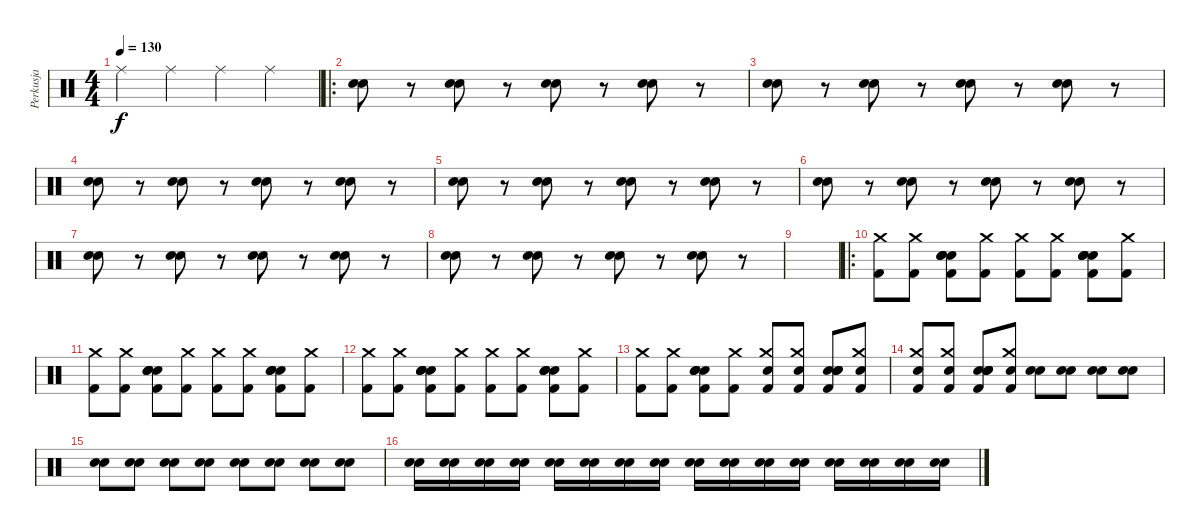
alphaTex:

\track ("Perkusja" "Perkusja") {instrument percussion}
\staff {score}
\articulation defaults
\ts (4 4)
\tempo 130
\clef neutral
\ks c "Ride (middle)".4{dy f} "Ride (middle)".4 "Ride (middle)".4 "Ride (middle)".4
|
\ro
("Electric Snare (hit)" "Electric Snare (hit)").8 r.8 ("Electric Snare (hit)" "Electric Snare (hit)").8 r.8 ("Electric Snare (hit)" "Electric Snare (hit)").8 r.8 ("Electric Snare (hit)" "Electric Snare (hit)").8 r.8 |
("Electric Snare (hit)" "Electric Snare (hit)").8 r.8 ("Electric Snare (hit)" "Electric Snare (hit)").8 r.8 ("Electric Snare (hit)" "Electric Snare (hit)").8 r.8 ("Electric Snare (hit)" "Electric Snare (hit)").8 r.8 |
("Electric Snare (hit)" "Electric Snare (hit)").8 r.8 ("Electric Snare (hit)" "Electric Snare (hit)").8 r.8 ("Electric Snare (hit)" "Electric Snare (hit)").8 r.8 ("Electric Snare (hit)" "Electric Snare (hit)").8 r.8 |
("Electric Snare (hit)" "Electric Snare (hit)").8 r.8 ("Electric Snare (hit)" "Electric Snare (hit)").8 r.8 ("Electric Snare (hit)" "Electric Snare (hit)").8 r.8 ("Electric Snare (hit)" "Electric Snare (hit)").8 r.8 |
("Electric Snare (hit)" "Electric Snare (hit)").8 r.8 ("Electric Snare (hit)" "Electric Snare (hit)").8 r.8 ("Electric Snare (hit)" "Electric Snare (hit)").8 r.8 ("Electric Snare (hit)" "Electric Snare (hit)").8 r.8 |
("Electric Snare (hit)" "Electric Snare (hit)").8 r.8 ("Electric Snare (hit)" "Electric Snare (hit)").8 r.8 ("Electric Snare (hit)" "Electric Snare (hit)").8 r.8 ("Electric Snare (hit)" "Electric Snare (hit)").8 r.8 |
("Electric Snare (hit)" "Electric Snare (hit)").8 r.8 ("Electric Snare (hit)" "Electric Snare (hit)").8 r.8 ("Electric Snare (hit)" "Electric Snare (hit)").8 r.8 ("Electric Snare (hit)" "Electric Snare (hit)").8 r.8 |
|
\ro
("Crash medium (hit)" "Kick (hit) 2").8 ("Crash medium (hit)" "Kick (hit) 2").8 ("Electric Snare (hit)" "Electric Snare (hit)" "Electric Snare (hit)" "Electric Snare (hit)" "Kick (hit) 2").8 ("Crash medium (hit)" "Kick (hit) 2").8 ("Crash medium (hit)" "Kick (hit) 2").8 ("Crash medium (hit)" "Kick (hit) 2").8 ("Electric Snare (hit)" "Electric Snare (hit)" "Electric Snare (hit)" "Electric Snare (hit)" "Kick (hit) 2").8 ("Crash medium (hit)" "Kick (hit) 2").8 |
("Crash medium (hit)" "Kick (hit) 2").8 ("Crash medium (hit)" "Kick (hit) 2").8 ("Electric Snare (hit)" "Electric Snare (hit)" "Electric Snare (hit)" "Electric Snare (hit)" "Kick (hit) 2").8 ("Crash medium (hit)" "Kick (hit) 2").8 ("Crash medium (hit)" "Kick (hit) 2").8 ("Crash medium (hit)" "Kick (hit) 2").8 ("Electric Snare (hit)" "Electric Snare (hit)" "Electric Snare (hit)" "Electric Snare (hit)" "Kick (hit) 2").8 ("Crash medium (hit)" "Kick (hit) 2").8 |
("Crash medium (hit)" "Kick (hit) 2").8 ("Crash medium (hit)" "Kick (hit) 2").8 ("Electric Snare (hit)" "Electric Snare (hit)" "Electric Snare (hit)" "Electric Snare (hit)" "Kick (hit) 2").8 ("Crash medium (hit)" "Kick (hit) 2").8 ("Crash medium (hit)" "Kick (hit) 2").8 ("Crash medium (hit)" "Kick (hit) 2").8 ("Electric Snare (hit)" "Electric Snare (hit)" "Electric Snare (hit)" "Electric Snare (hit)" "Kick (hit) 2").8 ("Crash medium (hit)" "Kick (hit) 2").8 |
("Crash medium (hit)" "Kick (hit) 2").8 ("Crash medium (hit)" "Kick (hit) 2").8 ("Electric Snare (hit)" "Electric Snare (hit)" "Electric Snare (hit)" "Electric Snare (hit)" "Kick (hit) 2").8 ("Crash medium (hit)" "Kick (hit) 2").8 ("Crash medium (hit)" "Electric Snare (hit)" "Kick (hit) 2").8 ("Crash medium (hit)" "Electric Snare (hit)" "Kick (hit) 2").8 ("Electric Snare (hit)" "Electric Snare (hit)" "Electric Snare (hit)" "Electric Snare (hit)" "Kick (hit) 2").8 ("Crash medium (hit)" "Electric Snare (hit)" "Kick (hit) 2").8 |
("Crash medium (hit)" "Electric Snare (hit)" "Kick (hit) 2").8 ("Crash medium (hit)" "Electric Snare (hit)" "Kick (hit) 2").8 ("Electric Snare (hit)" "Electric Snare (hit)" "Electric Snare (hit)" "Electric Snare (hit)" "Kick (hit) 2").8 ("Crash medium (hit)" "Electric Snare (hit)" "Kick (hit) 2").8 ("Electric Snare (hit)" "Electric Snare (hit)").8 ("Electric Snare (hit)" "Electric Snare (hit)").8 ("Electric Snare (hit)" "Electric Snare (hit)").8 ("Electric Snare (hit)" "Electric Snare (hit)").8 |
("Electric Snare (hit)" "Electric Snare (hit)").8 ("Electric Snare (hit)" "Electric Snare (hit)").8 ("Electric Snare (hit)" "Electric Snare (hit)").8 ("Electric Snare (hit)" "Electric Snare (hit)").8 ("Electric Snare (hit)" "Electric Snare (hit)").8 ("Electric Snare (hit)" "Electric Snare (hit)").8 ("Electric Snare (hit)" "Electric Snare (hit)").8 ("Electric Snare (hit)" "Electric Snare (hit)").8 |
("Electric Snare (hit)" "Electric Snare (hit)").16 ("Electric Snare (hit)" "Electric Snare (hit)").16 ("Electric Snare (hit)" "Electric Snare (hit)").16 ("Electric Snare (hit)" "Electric Snare (hit)").16 ("Electric Snare (hit)" "Electric Snare (hit)").16 ("Electric Snare (hit)" "Electric Snare (hit)").16 ("Electric Snare (hit)" "Electric Snare (hit)").16 ("Electric Snare (hit)" "Electric Snare (hit)").16 ("Electric Snare (hit)" "Electric Snare (hit)").16 ("Electric Snare (hit)" "Electric Snare (hit)").16 ("Electric Snare (hit)" "Electric Snare (hit)").16 ("Electric Snare (hit)" "Electric Snare (hit)").16 ("Electric Snare (hit)" "Electric Snare (hit)").16 ("Electric Snare (hit)" "Electric Snare (hit)").16 ("Electric Snare (hit)" "Electric Snare (hit)").16 ("Electric Snare (hit)" "Electric Snare (hit)").16
